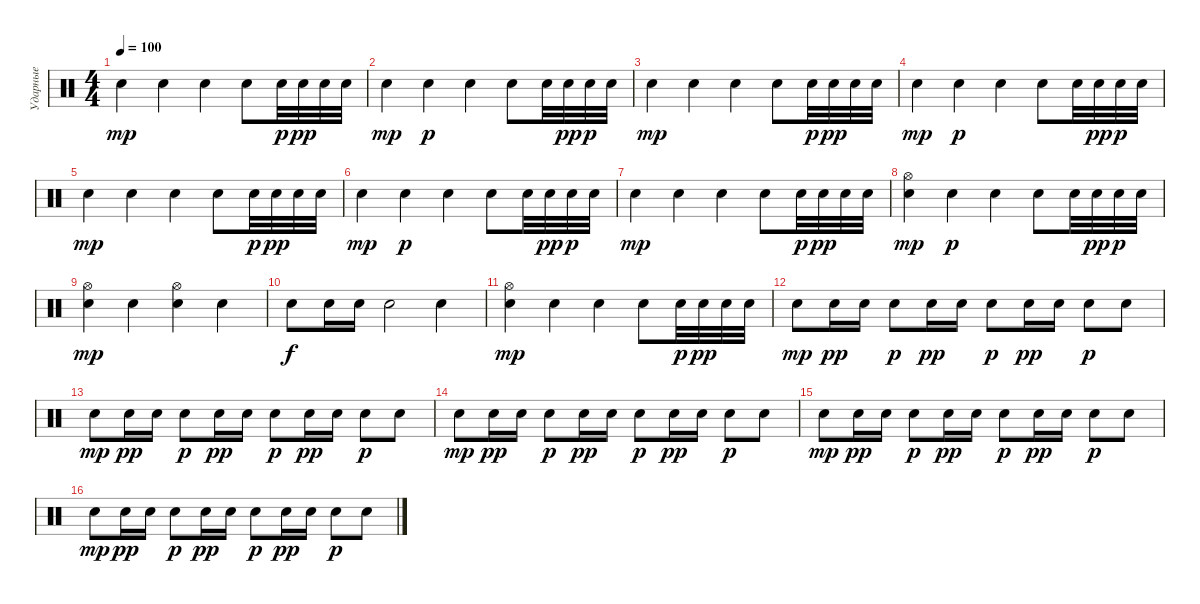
\track ("Ударные" "Ударные") {instrument percussion}
\staff {score}
\articulation defaults
\ts (4 4)
\tempo 100
\clef neutral
\ks c "Electric Snare (hit)".4{dy mp} "Electric Snare (hit)".4 "Electric Snare (hit)".4 "Electric Snare (hit)".8 "Electric Snare (hit)".32{dy p} "Electric Snare (hit)".32{dy pp} "Electric Snare (hit)".32 "Electric Snare (hit)".32
|
"Electric Snare (hit)".4{dy mp} "Electric Snare (hit)".4{dy p} "Electric Snare (hit)".4 "Electric Snare (hit)".8 "Electric Snare (hit)".32 "Electric Snare (hit)".32{dy pp} "Electric Snare (hit)".32{dy p} "Electric Snare (hit)".32 |
"Electric Snare (hit)".4{dy mp} "Electric Snare (hit)".4 "Electric Snare (hit)".4 "Electric Snare (hit)".8 "Electric Snare (hit)".32{dy p} "Electric Snare (hit)".32{dy pp} "Electric Snare (hit)".32 "Electric Snare (hit)".32 |
"Electric Snare (hit)".4{dy mp} "Electric Snare (hit)".4{dy p} "Electric Snare (hit)".4 "Electric Snare (hit)".8 "Electric Snare (hit)".32 "Electric Snare (hit)".32{dy pp} "Electric Snare (hit)".32{dy p} "Electric Snare (hit)".32 |
"Electric Snare (hit)".4{dy mp} "Electric Snare (hit)".4 "Electric Snare (hit)".4 "Electric Snare (hit)".8 "Electric Snare (hit)".32{dy p} "Electric Snare (hit)".32{dy pp} "Electric Snare (hit)".32 "Electric Snare (hit)".32 |
"Electric Snare (hit)".4{dy mp} "Electric Snare (hit)".4{dy p} "Electric Snare (hit)".4 "Electric Snare (hit)".8 "Electric Snare (hit)".32 "Electric Snare (hit)".32{dy pp} "Electric Snare (hit)".32{dy p} "Electric Snare (hit)".32 |
"Electric Snare (hit)".4{dy mp} "Electric Snare (hit)".4 "Electric Snare (hit)".4 "Electric Snare (hit)".8 "Electric Snare (hit)".32{dy p} "Electric Snare (hit)".32{dy pp} "Electric Snare (hit)".32 "Electric Snare (hit)".32 |
("Electric Snare (hit)" "Hi-Hat (open)").4{dy mp} "Electric Snare (hit)".4{dy p} "Electric Snare (hit)".4 "Electric Snare (hit)".8 "Electric Snare (hit)".32 "Electric Snare (hit)".32{dy pp} "Electric Snare (hit)".32{dy p} "Electric Snare (hit)".32 |
("Electric Snare (hit)" "Hi-Hat (open)").4{dy mp} "Electric Snare (hit)".4 ("Electric Snare (hit)" "Hi-Hat (open)").4 "Electric Snare (hit)".4 |
"Electric Snare (hit)".8{dy f} "Electric Snare (hit)".16 "Electric Snare (hit)".16 "Electric Snare (hit)".2 "Electric Snare (hit)".4 |
("Electric Snare (hit)" "Hi-Hat (open)").4{dy mp} "Electric Snare (hit)".4 "Electric Snare (hit)".4 "Electric Snare (hit)".8 "Electric Snare (hit)".32{dy p} "Electric Snare (hit)".32{dy pp} "Electric Snare (hit)".32 "Electric Snare (hit)".32 |
"Electric Snare (hit)".8{dy mp} "Electric Snare (hit)".16{dy pp} "Electric Snare (hit)".16 "Electric Snare (hit)".8{dy p} "Electric Snare (hit)".16{dy pp} "Electric Snare (hit)".16 "Electric Snare (hit)".8{dy p} "Electric Snare (hit)".16{dy pp} "Electric Snare (hit)".16 "Electric Snare (hit)".8{dy p} "Electric Snare (hit)".8 |
"Electric Snare (hit)".8{dy mp} "Electric Snare (hit)".16{dy pp} "Electric Snare (hit)".16 "Electric Snare (hit)".8{dy p} "Electric Snare (hit)".16{dy pp} "Electric Snare (hit)".16 "Electric Snare (hit)".8{dy p} "Electric Snare (hit)".16{dy pp} "Electric Snare (hit)".16 "Electric Snare (hit)".8{dy p} "Electric Snare (hit)".8 |
"Electric Snare (hit)".8{dy mp} "Electric Snare (hit)".16{dy pp} "Electric Snare (hit)".16 "Electric Snare (hit)".8{dy p} "Electric Snare (hit)".16{dy pp} "Electric Snare (hit)".16 "Electric Snare (hit)".8{dy p} "Electric Snare (hit)".16{dy pp} "Electric Snare (hit)".16 "Electric Snare (hit)".8{dy p} "Electric Snare (hit)".8 |
"Electric Snare (hit)".8{dy mp} "Electric Snare (hit)".16{dy pp} "Electric Snare (hit)".16 "Electric Snare (hit)".8{dy p} "Electric Snare (hit)".16{dy pp} "Electric Snare (hit)".16 "Electric Snare (hit)".8{dy p} "Electric Snare (hit)".16{dy pp} "Electric Snare (hit)".16 "Electric Snare (hit)".8{dy p} "Electric Snare (hit)".8 |
"Electric Snare (hit)".8{dy mp} "Electric Snare (hit)".16{dy pp} "Electric Snare (hit)".16 "Electric Snare (hit)".8{dy p} "Electric Snare (hit)".16{dy pp} "Electric Snare (hit)".16 "Electric Snare (hit)".8{dy p} "Electric Snare (hit)".16{dy pp} "Electric Snare (hit)".16 "Electric Snare (hit)".8{dy p} "Electric Snare (hit)".8
